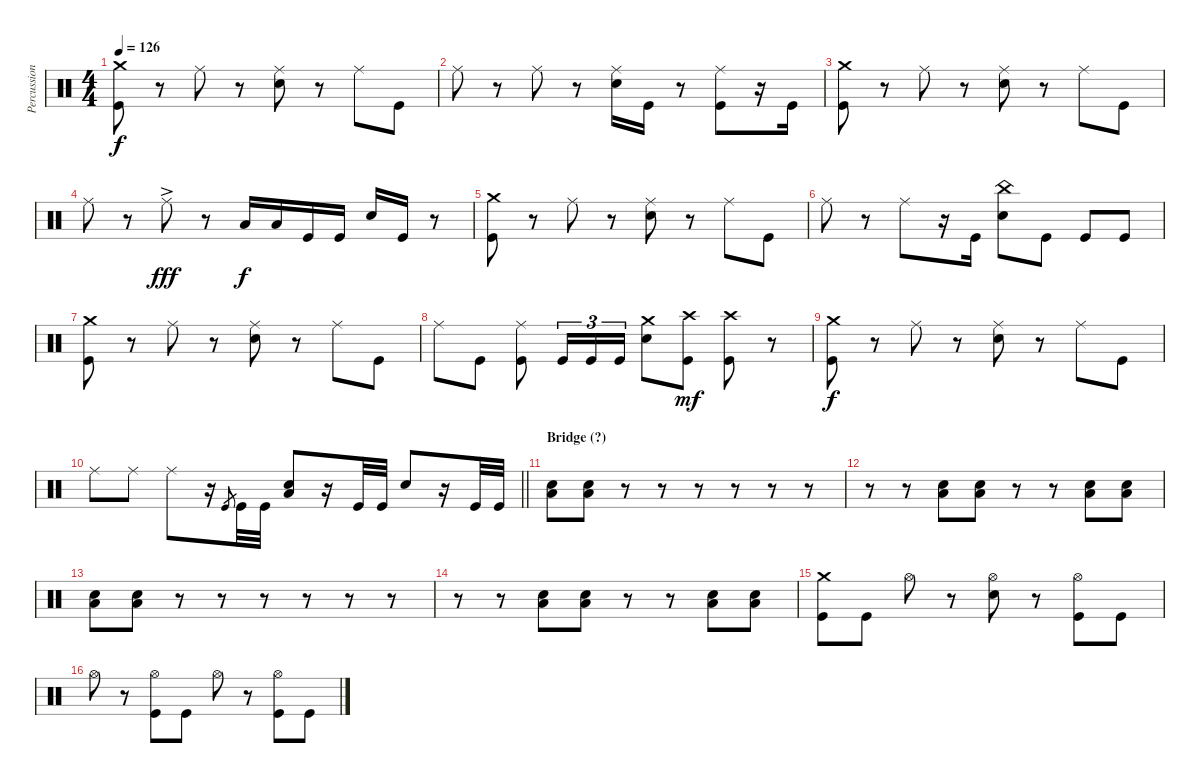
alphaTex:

\track ("Percussion" "Percussion") {instrument percussion}
\staff {score}
\articulation defaults
\ts (4 4)
\tempo 126
\clef neutral
\ks c
("Crash medium (hit)" "Kick (hit)").8{dy f} r.8 "Ride (middle)".8 r.8 ("Ride (middle)" "Snare (hit) 2").8 r.8 "Ride (middle)".8 "Kick (hit)".8 |
"Ride (middle)".8 r.8 "Ride (middle)".8 r.8 ("Ride (middle)" "Snare (hit) 2").16 "Kick (hit)".16 r.8 ("Ride (middle)" "Kick (hit)").8 r.16 "Kick (hit)".16 |
("Crash medium (hit)" "Kick (hit)").8 r.8 "Ride (middle)".8 r.8 ("Ride (middle)" "Snare (hit) 2").8 r.8 "Ride (middle)".8 "Kick (hit)".8 |
"Ride (middle)".8 r.8 "Ride (middle)"{ac}.8{dy fff} r.8 "Low Tom (hit)".16{dy f} "Low Tom (hit)".16 "Kick (hit)".16 "Kick (hit)".16 "Snare (hit) 2".16 "Kick (hit)".16 r.8 |
("Crash medium (hit)" "Kick (hit)").8 r.8 "Ride (middle)".8 r.8 ("Ride (middle)" "Snare (hit) 2").8 r.8 "Ride (middle)".8 "Kick (hit)".8 |
"Ride (middle)".8 r.8 "Ride (middle)".8 r.16 "Kick (hit)".16 ("China (hit)" "Snare (hit) 2").8 "Kick (hit)".8 "Kick (hit)".8 "Kick (hit)".8 |
("Crash medium (hit)" "Kick (hit)").8 r.8 "Ride (middle)".8 r.8 ("Ride (middle)" "Snare (hit) 2").8 r.8 "Ride (middle)".8 "Kick (hit)".8 |
"Ride (middle)".8 "Kick (hit)".8 ("Ride (middle)" "Kick (hit)").8 "Kick (hit)".16{tu (3 2)} "Kick (hit)".16{tu (3 2)} "Kick (hit)".16{tu (3 2)} ("Crash medium (hit)" "Snare (hit) 2").8 ("Crash high (hit)" "Kick (hit)").8{dy mf} ("Crash high (hit)" "Kick (hit)").8 r.8 |
("Crash medium (hit)" "Kick (hit)").8{dy f} r.8 "Ride (middle)".8 r.8 ("Ride (middle)" "Snare (hit) 2").8 r.8 "Ride (middle)".8 "Kick (hit)".8 |
\barLineRight lightlight "Ride (middle)".8 "Ride (middle)".8 "Ride (middle)".8
r.16 "Kick (hit)".8{gr} "Kick (hit)".32 "Kick (hit)".32 ("Snare (hit) 2" "Low Tom (hit)").8 r.16 "Kick (hit)".32 "Kick (hit)".32 "Snare (hit) 2".8 r.16 "Kick (hit)".32 "Kick (hit)".32 |
\section ("" "Bridge (?)")
("Snare (hit) 2" "Low Tom (hit)").8 ("Snare (hit) 2" "Low Tom (hit)").8 r.8 r.8 r.8 r.8 r.8 r.8 |
r.8 r.8 ("Snare (hit) 2" "Low Tom (hit)").8 ("Snare (hit) 2" "Low Tom (hit)").8 r.8 r.8 ("Snare (hit) 2" "Low Tom (hit)").8 ("Snare (hit) 2" "Low Tom (hit)").8 |
("Snare (hit) 2" "Low Tom (hit)").8 ("Snare (hit) 2" "Low Tom (hit)").8 r.8 r.8 r.8 r.8 r.8 r.8 |
r.8 r.8 ("Snare (hit) 2" "Low Tom (hit)").8 ("Snare (hit) 2" "Low Tom (hit)").8 r.8 r.8 ("Snare (hit) 2" "Low Tom (hit)").8 ("Snare (hit) 2" "Low Tom (hit)").8 |
("Crash medium (hit)" "Kick (hit)").8 "Kick (hit)".8 "Hi-Hat (open)".8 r.8 ("Hi-Hat (open)" "Snare (hit) 2").8 r.8 ("Hi-Hat (open)" "Kick (hit)").8 "Kick (hit)".8 |
"Hi-Hat (open)".8 r.8 ("Hi-Hat (open)" "Kick (hit)").8 "Kick (hit)".8 "Hi-Hat (open)".8 r.8 ("Hi-Hat (open)" "Kick (hit)").8 "Kick (hit)".8
